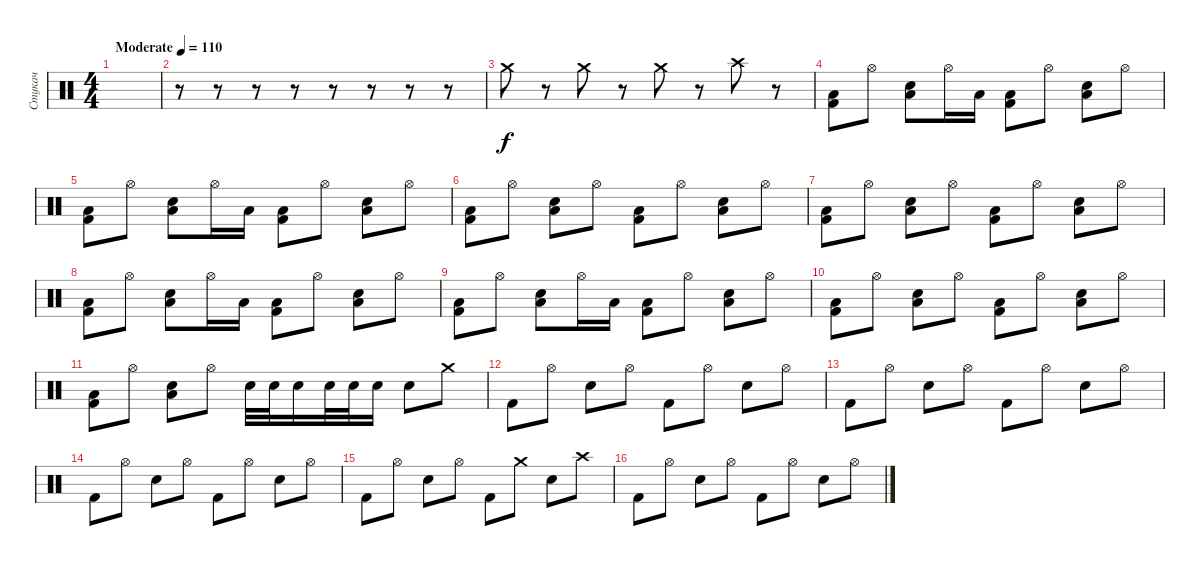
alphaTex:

\track ("Стукач" "Стукач") {instrument percussion}
\staff {score}
\articulation defaults
\ts (4 4)
\tempo (110 "Moderate")
\clef neutral
\ks c
|
r.8 r.8 r.8 r.8 r.8 r.8 r.8 r.8 |
"Crash medium (hit)".8 r.8 "Crash medium (hit)".8 r.8 "Crash medium (hit)".8 r.8 "Crash high (hit)".8 r.8 |
("Kick (hit) 2" "Low Floor Tom (hit)").8 "Hi-Hat (open)".8 ("Electric Snare (hit)" "Low Floor Tom (hit)").8 "Hi-Hat (open)".16 "Low Floor Tom (hit)".16 ("Kick (hit) 2" "Low Floor Tom (hit)").8 "Hi-Hat (open)".8 ("Electric Snare (hit)" "Low Floor Tom (hit)").8 "Hi-Hat (open)".8 |
("Kick (hit) 2" "Low Floor Tom (hit)").8 "Hi-Hat (open)".8 ("Electric Snare (hit)" "Low Floor Tom (hit)").8 "Hi-Hat (open)".16 "Low Floor Tom (hit)".16 ("Kick (hit) 2" "Low Floor Tom (hit)").8 "Hi-Hat (open)".8 ("Electric Snare (hit)" "Low Floor Tom (hit)").8 "Hi-Hat (open)".8 |
("Kick (hit) 2" "Low Floor Tom (hit)").8 "Hi-Hat (open)".8 ("Electric Snare (hit)" "Low Floor Tom (hit)").8 "Hi-Hat (open)".8 ("Kick (hit) 2" "Low Floor Tom (hit)").8 "Hi-Hat (open)".8 ("Electric Snare (hit)" "Low Floor Tom (hit)").8 "Hi-Hat (open)".8 |
("Kick (hit) 2" "Low Floor Tom (hit)").8 "Hi-Hat (open)".8 ("Electric Snare (hit)" "Low Floor Tom (hit)").8 "Hi-Hat (open)".8 ("Kick (hit) 2" "Low Floor Tom (hit)").8 "Hi-Hat (open)".8 ("Electric Snare (hit)" "Low Floor Tom (hit)").8 "Hi-Hat (open)".8 |
("Kick (hit) 2" "Low Floor Tom (hit)").8 "Hi-Hat (open)".8 ("Electric Snare (hit)" "Low Floor Tom (hit)").8 "Hi-Hat (open)".16 "Low Floor Tom (hit)".16 ("Kick (hit) 2" "Low Floor Tom (hit)").8 "Hi-Hat (open)".8 ("Electric Snare (hit)" "Low Floor Tom (hit)").8 "Hi-Hat (open)".8 |
("Kick (hit) 2" "Low Floor Tom (hit)").8 "Hi-Hat (open)".8 ("Electric Snare (hit)" "Low Floor Tom (hit)").8 "Hi-Hat (open)".16 "Low Floor Tom (hit)".16 ("Kick (hit) 2" "Low Floor Tom (hit)").8 "Hi-Hat (open)".8 ("Electric Snare (hit)" "Low Floor Tom (hit)").8 "Hi-Hat (open)".8 |
("Kick (hit) 2" "Low Floor Tom (hit)").8 "Hi-Hat (open)".8 ("Electric Snare (hit)" "Low Floor Tom (hit)").8 "Hi-Hat (open)".8 ("Kick (hit) 2" "Low Floor Tom (hit)").8 "Hi-Hat (open)".8 ("Electric Snare (hit)" "Low Floor Tom (hit)").8 "Hi-Hat (open)".8 |
("Kick (hit) 2" "Low Floor Tom (hit)").8 "Hi-Hat (open)".8 ("Electric Snare (hit)" "Low Floor Tom (hit)").8 "Hi-Hat (open)".8 "Snare (hit) 2".32 "Snare (hit) 2".32 "Snare (hit) 2".16 "Snare (hit) 2".32 "Snare (hit) 2".32 "Snare (hit) 2".16 "Snare (hit) 2".8 "Crash medium (hit)".8 |
"Kick (hit) 2".8 "Hi-Hat (open)".8 "Electric Snare (hit)".8 "Hi-Hat (open)".8 "Kick (hit) 2".8 "Hi-Hat (open)".8 "Electric Snare (hit)".8 "Hi-Hat (open)".8 |
"Kick (hit) 2".8 "Hi-Hat (open)".8 "Electric Snare (hit)".8 "Hi-Hat (open)".8 "Kick (hit) 2".8 "Hi-Hat (open)".8 "Electric Snare (hit)".8 "Hi-Hat (open)".8 |
"Kick (hit) 2".8 "Hi-Hat (open)".8 "Electric Snare (hit)".8 "Hi-Hat (open)".8 "Kick (hit) 2".8 "Hi-Hat (open)".8 "Electric Snare (hit)".8 "Hi-Hat (open)".8 |
"Kick (hit) 2".8 "Hi-Hat (open)".8 "Electric Snare (hit)".8 "Hi-Hat (open)".8 "Kick (hit) 2".8 "Crash medium (hit)".8 "Electric Snare (hit)".8 "Crash high (hit)".8 |
"Kick (hit) 2".8 "Hi-Hat (open)".8 "Electric Snare (hit)".8 "Hi-Hat (open)".8 "Kick (hit) 2".8 "Hi-Hat (open)".8 "Electric Snare (hit)".8 "Hi-Hat (open)".8
